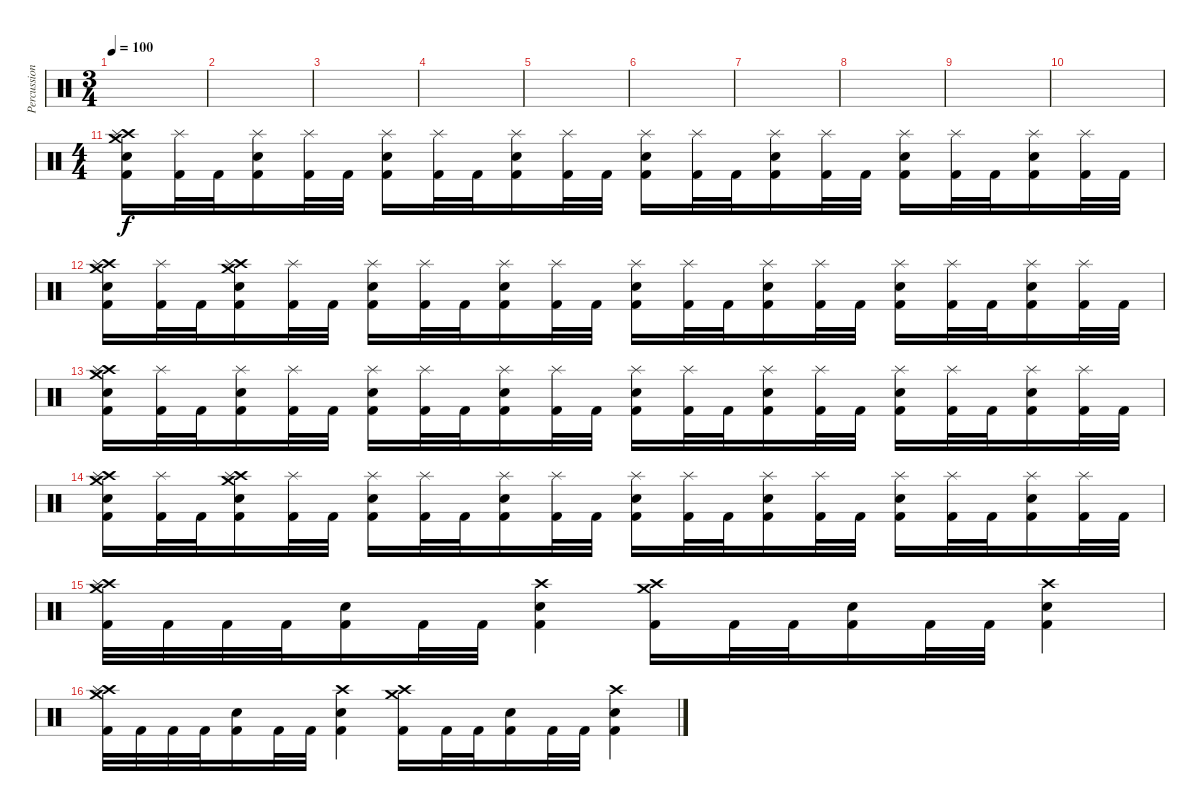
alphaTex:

\track ("Percussion" "Percussion") {instrument percussion}
\staff {score}
\articulation defaults
\ts (3 4)
\tempo 100
\clef neutral
\ks c
|
|
|
|
|
|
|
|
|
|
\ts (4 4)
\section ("" "")
("Crash high (hit)" "Electric Snare (hit)" "Kick (hit) 2" "Crash medium (hit)" "Splash (hit)").16 ("Kick (hit) 2" "Splash (hit)").32 "Kick (hit) 2".32 ("Electric Snare (hit)" "Kick (hit) 2" "Splash (hit)").16 ("Kick (hit) 2" "Splash (hit)").32 "Kick (hit) 2".32 ("Electric Snare (hit)" "Kick (hit) 2" "Splash (hit)").16 ("Kick (hit) 2" "Splash (hit)").32 "Kick (hit) 2".32 ("Electric Snare (hit)" "Kick (hit) 2" "Splash (hit)").16 ("Kick (hit) 2" "Splash (hit)").32 "Kick (hit) 2".32 ("Electric Snare (hit)" "Kick (hit) 2" "Splash (hit)").16 ("Kick (hit) 2" "Splash (hit)").32 "Kick (hit) 2".32 ("Electric Snare (hit)" "Kick (hit) 2" "Splash (hit)").16 ("Kick (hit) 2" "Splash (hit)").32 "Kick (hit) 2".32 ("Electric Snare (hit)" "Kick (hit) 2" "Splash (hit)").16 ("Kick (hit) 2" "Splash (hit)").32 "Kick (hit) 2".32 ("Electric Snare (hit)" "Kick (hit) 2" "Splash (hit)").16 ("Kick (hit) 2" "Splash (hit)").32 "Kick (hit) 2".32 |
("Crash high (hit)" "Electric Snare (hit)" "Kick (hit) 2" "Crash medium (hit)" "Splash (hit)").16 ("Kick (hit) 2" "Splash (hit)").32 "Kick (hit) 2".32 ("Crash high (hit)" "Electric Snare (hit)" "Kick (hit) 2" "Crash medium (hit)" "Splash (hit)").16 ("Kick (hit) 2" "Splash (hit)").32 "Kick (hit) 2".32 ("Electric Snare (hit)" "Kick (hit) 2" "Splash (hit)").16 ("Kick (hit) 2" "Splash (hit)").32 "Kick (hit) 2".32 ("Electric Snare (hit)" "Kick (hit) 2" "Splash (hit)").16 ("Kick (hit) 2" "Splash (hit)").32 "Kick (hit) 2".32 ("Electric Snare (hit)" "Kick (hit) 2" "Splash (hit)").16 ("Kick (hit) 2" "Splash (hit)").32 "Kick (hit) 2".32 ("Electric Snare (hit)" "Kick (hit) 2" "Splash (hit)").16 ("Kick (hit) 2" "Splash (hit)").32 "Kick (hit) 2".32 ("Electric Snare (hit)" "Kick (hit) 2" "Splash (hit)").16 ("Kick (hit) 2" "Splash (hit)").32 "Kick (hit) 2".32 ("Electric Snare (hit)" "Kick (hit) 2" "Splash (hit)").16 ("Kick (hit) 2" "Splash (hit)").32 "Kick (hit) 2".32 |
("Crash high (hit)" "Electric Snare (hit)" "Kick (hit) 2" "Crash medium (hit)" "Splash (hit)").16 ("Kick (hit) 2" "Splash (hit)").32 "Kick (hit) 2".32 ("Electric Snare (hit)" "Kick (hit) 2" "Splash (hit)").16 ("Kick (hit) 2" "Splash (hit)").32 "Kick (hit) 2".32 ("Electric Snare (hit)" "Kick (hit) 2" "Splash (hit)").16 ("Kick (hit) 2" "Splash (hit)").32 "Kick (hit) 2".32 ("Electric Snare (hit)" "Kick (hit) 2" "Splash (hit)").16 ("Kick (hit) 2" "Splash (hit)").32 "Kick (hit) 2".32 ("Electric Snare (hit)" "Kick (hit) 2" "Splash (hit)").16 ("Kick (hit) 2" "Splash (hit)").32 "Kick (hit) 2".32 ("Electric Snare (hit)" "Kick (hit) 2" "Splash (hit)").16 ("Kick (hit) 2" "Splash (hit)").32 "Kick (hit) 2".32 ("Electric Snare (hit)" "Kick (hit) 2" "Splash (hit)").16 ("Kick (hit) 2" "Splash (hit)").32 "Kick (hit) 2".32 ("Electric Snare (hit)" "Kick (hit) 2" "Splash (hit)").16 ("Kick (hit) 2" "Splash (hit)").32 "Kick (hit) 2".32 |
("Crash high (hit)" "Electric Snare (hit)" "Kick (hit) 2" "Crash medium (hit)" "Splash (hit)").16 ("Kick (hit) 2" "Splash (hit)").32 "Kick (hit) 2".32 ("Crash high (hit)" "Electric Snare (hit)" "Kick (hit) 2" "Crash medium (hit)" "Splash (hit)").16 ("Kick (hit) 2" "Splash (hit)").32 "Kick (hit) 2".32 ("Electric Snare (hit)" "Kick (hit) 2" "Splash (hit)").16 ("Kick (hit) 2" "Splash (hit)").32 "Kick (hit) 2".32 ("Electric Snare (hit)" "Kick (hit) 2" "Splash (hit)").16 ("Kick (hit) 2" "Splash (hit)").32 "Kick (hit) 2".32 ("Electric Snare (hit)" "Kick (hit) 2" "Splash (hit)").16 ("Kick (hit) 2" "Splash (hit)").32 "Kick (hit) 2".32 ("Electric Snare (hit)" "Kick (hit) 2" "Splash (hit)").16 ("Kick (hit) 2" "Splash (hit)").32 "Kick (hit) 2".32 ("Electric Snare (hit)" "Kick (hit) 2" "Splash (hit)").16 ("Kick (hit) 2" "Splash (hit)").32 "Kick (hit) 2".32 ("Electric Snare (hit)" "Kick (hit) 2" "Splash (hit)").16 ("Kick (hit) 2" "Splash (hit)").32 "Kick (hit) 2".32 |
\section ("" "")
("Crash high (hit)" "Crash medium (hit)" "Kick (hit) 2" "Splash (hit)").32 "Kick (hit) 2".32 "Kick (hit) 2".32 "Kick (hit) 2".32 ("Electric Snare (hit)" "Kick (hit) 2").16 "Kick (hit) 2".32 "Kick (hit) 2".32 ("Crash high (hit)" "Electric Snare (hit)" "Kick (hit) 2").4 ("Crash high (hit)" "Crash medium (hit)" "Kick (hit) 2").16 "Kick (hit) 2".32 "Kick (hit) 2".32 ("Electric Snare (hit)" "Kick (hit) 2").16 "Kick (hit) 2".32 "Kick (hit) 2".32 ("Crash high (hit)" "Electric Snare (hit)" "Kick (hit) 2").4 |
("Crash high (hit)" "Crash medium (hit)" "Kick (hit) 2" "Splash (hit)").32 "Kick (hit) 2".32 "Kick (hit) 2".32 "Kick (hit) 2".32 ("Electric Snare (hit)" "Kick (hit) 2").16 "Kick (hit) 2".32 "Kick (hit) 2".32 ("Crash high (hit)" "Electric Snare (hit)" "Kick (hit) 2").4 ("Crash high (hit)" "Crash medium (hit)" "Kick (hit) 2").16 "Kick (hit) 2".32 "Kick (hit) 2".32 ("Electric Snare (hit)" "Kick (hit) 2").16 "Kick (hit) 2".32 "Kick (hit) 2".32 ("Crash high (hit)" "Electric Snare (hit)" "Kick (hit) 2").4
